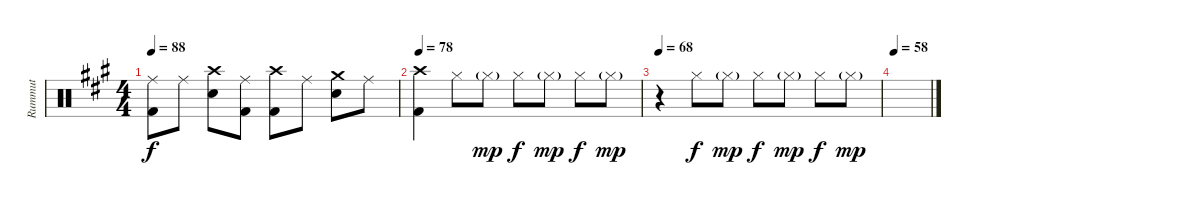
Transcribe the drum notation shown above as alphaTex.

\track ("Rummut" "Rummut") {instrument percussion}
\staff {score}
\articulation defaults
\ts (4 4)
\tempo 88
\clef neutral
\ks f#minor
("Ride (middle)" "Kick (hit) 2").8{dy f} "Ride (middle)".8 ("Crash high (hit)" "Snare (hit) 2").8 ("Ride (middle)" "Kick (hit) 2").8 ("Crash high (hit)" "Kick (hit) 2").8 "Ride (middle)".8 ("Crash medium (hit)" "Snare (hit) 2").8 "Ride (middle)".8 |
\tempo 78
("Crash high (hit)" "Kick (hit) 2").4 "Hi-Hat (closed)".8 "Hi-Hat (closed)"{g}.8{dy mp} "Hi-Hat (closed)".8{dy f} "Hi-Hat (closed)"{g}.8{dy mp} "Hi-Hat (closed)".8{dy f} "Hi-Hat (closed)"{g}.8{dy mp} |
\tempo 68
r.4 "Hi-Hat (closed)".8{dy f} "Hi-Hat (closed)"{g}.8{dy mp} "Hi-Hat (closed)".8{dy f} "Hi-Hat (closed)"{g}.8{dy mp} "Hi-Hat (closed)".8{dy f} "Hi-Hat (closed)"{g}.8{dy mp} |
\tempo 58
